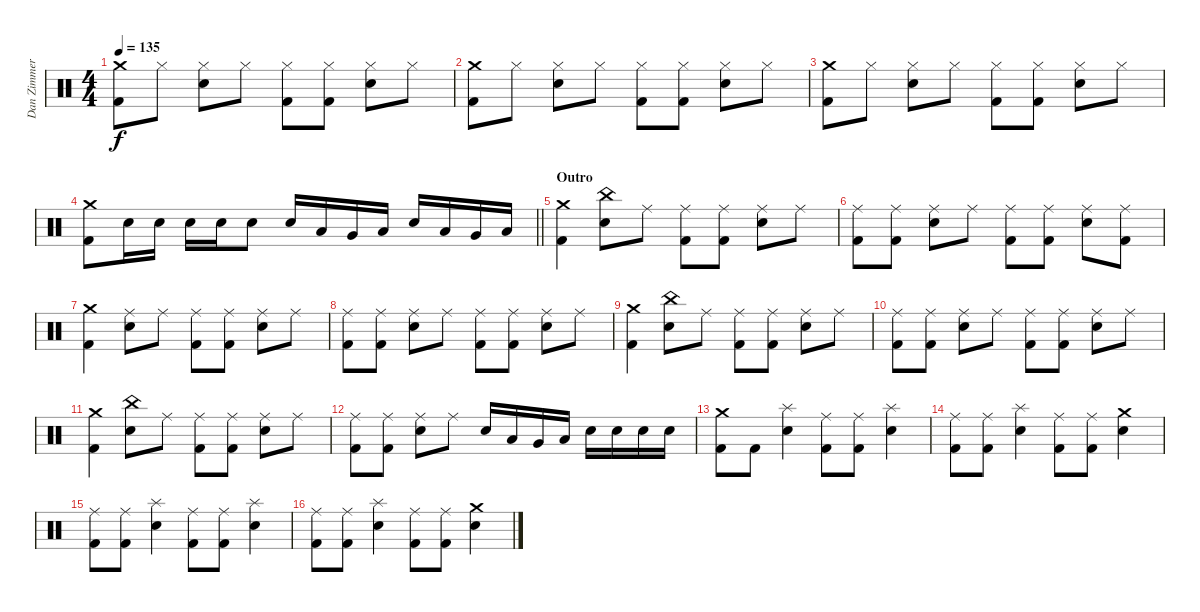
\track ("Dan Zimmermann" "Dan Zimmer") {instrument percussion}
\staff {score}
\articulation defaults
\ts (4 4)
\tempo 135
\clef neutral
\ks c
("Crash medium (hit)" "Kick (hit) 2").8{dy f} "Hi-Hat (closed)".8 ("Hi-Hat (closed)" "Electric Snare (hit)").8 "Hi-Hat (closed)".8 ("Hi-Hat (closed)" "Kick (hit) 2").8 ("Hi-Hat (closed)" "Kick (hit) 2").8 ("Hi-Hat (closed)" "Electric Snare (hit)").8 "Hi-Hat (closed)".8 |
("Crash medium (hit)" "Kick (hit) 2").8 "Hi-Hat (closed)".8 ("Hi-Hat (closed)" "Electric Snare (hit)").8 "Hi-Hat (closed)".8 ("Hi-Hat (closed)" "Kick (hit) 2").8 ("Hi-Hat (closed)" "Kick (hit) 2").8 ("Hi-Hat (closed)" "Electric Snare (hit)").8 "Hi-Hat (closed)".8 |
("Crash medium (hit)" "Kick (hit) 2").8 "Hi-Hat (closed)".8 ("Hi-Hat (closed)" "Electric Snare (hit)").8 "Hi-Hat (closed)".8 ("Hi-Hat (closed)" "Kick (hit) 2").8 ("Hi-Hat (closed)" "Kick (hit) 2").8 ("Hi-Hat (closed)" "Electric Snare (hit)").8 "Hi-Hat (closed)".8 |
\barLineRight lightlight
("Crash medium (hit)" "Kick (hit) 2").8 "Electric Snare (hit)".16 "Electric Snare (hit)".16 "Electric Snare (hit)".16 "Electric Snare (hit)".16 "Electric Snare (hit)".8 "Electric Snare (hit)".16 "Low Tom (hit)".16 "Very Low Tom (hit)".16 "Low Floor Tom (hit)".16 "Electric Snare (hit)".16 "Low Tom (hit)".16 "Very Low Tom (hit)".16 "Low Floor Tom (hit)".16 |
\section ("" "Outro")
("Crash medium (hit)" "Kick (hit) 2").4 ("China (hit)" "Electric Snare (hit)").8 "Ride (middle)".8 ("Ride (middle)" "Kick (hit) 2").8 ("Ride (middle)" "Kick (hit) 2").8 ("Ride (middle)" "Electric Snare (hit)").8 "Ride (middle)".8 |
("Ride (middle)" "Kick (hit) 2").8 ("Ride (middle)" "Kick (hit) 2").8 ("Ride (middle)" "Electric Snare (hit)").8 "Ride (middle)".8 ("Ride (middle)" "Kick (hit) 2").8 ("Ride (middle)" "Kick (hit) 2").8 ("Ride (middle)" "Electric Snare (hit)").8 ("Ride (middle)" "Kick (hit) 2").8 |
("Crash medium (hit)" "Kick (hit) 2").4 ("Ride (middle)" "Electric Snare (hit)").8 "Ride (middle)".8 ("Ride (middle)" "Kick (hit) 2").8 ("Ride (middle)" "Kick (hit) 2").8 ("Ride (middle)" "Electric Snare (hit)").8 "Ride (middle)".8 |
("Ride (middle)" "Kick (hit) 2").8 ("Ride (middle)" "Kick (hit) 2").8 ("Ride (middle)" "Electric Snare (hit)").8 "Ride (middle)".8 ("Ride (middle)" "Kick (hit) 2").8 ("Ride (middle)" "Kick (hit) 2").8 ("Ride (middle)" "Electric Snare (hit)").8 "Ride (middle)".8 |
("Crash medium (hit)" "Kick (hit) 2").4 ("China (hit)" "Electric Snare (hit)").8 "Ride (middle)".8 ("Ride (middle)" "Kick (hit) 2").8 ("Ride (middle)" "Kick (hit) 2").8 ("Ride (middle)" "Electric Snare (hit)").8 "Ride (middle)".8 |
("Ride (middle)" "Kick (hit) 2").8 ("Ride (middle)" "Kick (hit) 2").8 ("Ride (middle)" "Electric Snare (hit)").8 "Ride (middle)".8 ("Ride (middle)" "Kick (hit) 2").8 ("Ride (middle)" "Kick (hit) 2").8 ("Ride (middle)" "Electric Snare (hit)").8 "Ride (middle)".8 |
("Crash medium (hit)" "Kick (hit) 2").4 ("China (hit)" "Electric Snare (hit)").8 "Ride (middle)".8 ("Ride (middle)" "Kick (hit) 2").8 ("Ride (middle)" "Kick (hit) 2").8 ("Ride (middle)" "Electric Snare (hit)").8 "Ride (middle)".8 |
("Ride (middle)" "Kick (hit) 2").8 ("Ride (middle)" "Kick (hit) 2").8 ("Ride (middle)" "Electric Snare (hit)").8 "Ride (middle)".8 "Electric Snare (hit)".16 "Low Tom (hit)".16 "Very Low Tom (hit)".16 "Low Floor Tom (hit)".16 "Electric Snare (hit)".16 "Electric Snare (hit)".16 "Electric Snare (hit)".16 "Electric Snare (hit)".16 |
("Crash medium (hit)" "Kick (hit) 2").8 "Kick (hit) 2".8 ("Splash (hit)" "Electric Snare (hit)").4 ("Ride (middle)" "Kick (hit) 2").8 ("Ride (middle)" "Kick (hit) 2").8 ("Splash (hit)" "Electric Snare (hit)").4 |
("Ride (middle)" "Kick (hit) 2").8 ("Ride (middle)" "Kick (hit) 2").8 ("Splash (hit)" "Electric Snare (hit)").4 ("Ride (middle)" "Kick (hit) 2").8 ("Ride (middle)" "Kick (hit) 2").8 ("Crash medium (hit)" "Electric Snare (hit)").4 |
("Ride (middle)" "Kick (hit) 2").8 ("Ride (middle)" "Kick (hit) 2").8 ("Splash (hit)" "Electric Snare (hit)").4 ("Ride (middle)" "Kick (hit) 2").8 ("Ride (middle)" "Kick (hit) 2").8 ("Splash (hit)" "Electric Snare (hit)").4 |
("Ride (middle)" "Kick (hit) 2").8 ("Ride (middle)" "Kick (hit) 2").8 ("Splash (hit)" "Electric Snare (hit)").4 ("Ride (middle)" "Kick (hit) 2").8 ("Ride (middle)" "Kick (hit) 2").8 ("Crash medium (hit)" "Electric Snare (hit)").4
